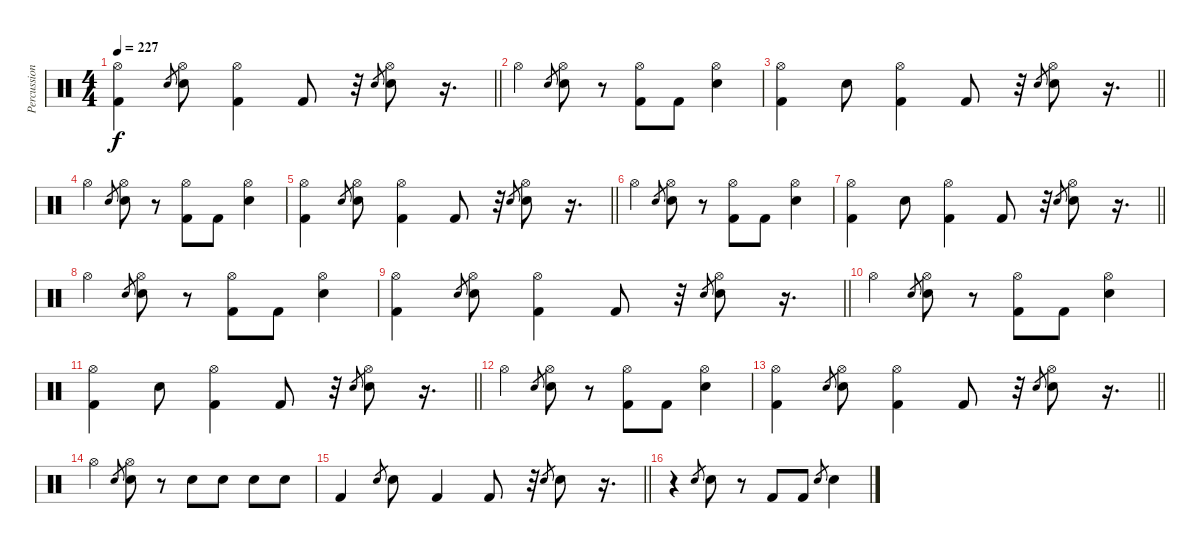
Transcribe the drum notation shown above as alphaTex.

\track ("Percussion" "Percussion") {instrument percussion}
\staff {score}
\articulation defaults
\ts (4 4)
\tempo 227
\clef neutral
\barLineRight lightlight
\ks c
("Hi-Hat (open)" "Kick (hit) 2").4{dy f} "Snare (hit) 2".8{gr} ("Hi-Hat (open)" "Snare (hit) 2").8 ("Hi-Hat (open)" "Kick (hit) 2").4 "Kick (hit) 2".8 r.32 "Snare (hit) 2".8{gr} ("Hi-Hat (open)" "Snare (hit) 2").8 r.16{d} |
"Hi-Hat (open)".4 "Snare (hit) 2".8{gr} ("Hi-Hat (open)" "Snare (hit) 2").8 r.8 ("Hi-Hat (open)" "Kick (hit) 2").8 "Kick (hit) 2".8 ("Hi-Hat (open)" "Snare (hit) 2").4 |
\barLineRight lightlight
("Hi-Hat (open)" "Kick (hit) 2").4 "Snare (hit) 2".8 ("Hi-Hat (open)" "Kick (hit) 2").4 "Kick (hit) 2".8 r.32 "Snare (hit) 2".8{gr} ("Hi-Hat (open)" "Snare (hit) 2").8 r.16{d} |
"Hi-Hat (open)".4 "Snare (hit) 2".8{gr} ("Hi-Hat (open)" "Snare (hit) 2").8 r.8 ("Hi-Hat (open)" "Kick (hit) 2").8 "Kick (hit) 2".8 ("Hi-Hat (open)" "Snare (hit) 2").4 |
\barLineRight lightlight
("Hi-Hat (open)" "Kick (hit) 2").4 "Snare (hit) 2".8{gr} ("Hi-Hat (open)" "Snare (hit) 2").8 ("Hi-Hat (open)" "Kick (hit) 2").4 "Kick (hit) 2".8 r.32 "Snare (hit) 2".8{gr} ("Hi-Hat (open)" "Snare (hit) 2").8 r.16{d} |
"Hi-Hat (open)".4 "Snare (hit) 2".8{gr} ("Hi-Hat (open)" "Snare (hit) 2").8 r.8 ("Hi-Hat (open)" "Kick (hit) 2").8 "Kick (hit) 2".8 ("Hi-Hat (open)" "Snare (hit) 2").4 |
\barLineRight lightlight
("Hi-Hat (open)" "Kick (hit) 2").4 "Snare (hit) 2".8 ("Hi-Hat (open)" "Kick (hit) 2").4 "Kick (hit) 2".8 r.32 "Snare (hit) 2".8{gr} ("Hi-Hat (open)" "Snare (hit) 2").8 r.16{d} |
"Hi-Hat (open)".4 "Snare (hit) 2".8{gr} ("Hi-Hat (open)" "Snare (hit) 2").8 r.8 ("Hi-Hat (open)" "Kick (hit) 2").8 "Kick (hit) 2".8 ("Hi-Hat (open)" "Snare (hit) 2").4 |
\barLineRight lightlight
("Hi-Hat (open)" "Kick (hit) 2").4 "Snare (hit) 2".8{gr} ("Hi-Hat (open)" "Snare (hit) 2").8 ("Hi-Hat (open)" "Kick (hit) 2").4 "Kick (hit) 2".8 r.32 "Snare (hit) 2".8{gr} ("Hi-Hat (open)" "Snare (hit) 2").8 r.16{d} |
"Hi-Hat (open)".4 "Snare (hit) 2".8{gr} ("Hi-Hat (open)" "Snare (hit) 2").8 r.8 ("Hi-Hat (open)" "Kick (hit) 2").8 "Kick (hit) 2".8 ("Hi-Hat (open)" "Snare (hit) 2").4 |
\barLineRight lightlight
("Hi-Hat (open)" "Kick (hit) 2").4 "Snare (hit) 2".8 ("Hi-Hat (open)" "Kick (hit) 2").4 "Kick (hit) 2".8 r.32 "Snare (hit) 2".8{gr} ("Hi-Hat (open)" "Snare (hit) 2").8 r.16{d} |
"Hi-Hat (open)".4 "Snare (hit) 2".8{gr} ("Hi-Hat (open)" "Snare (hit) 2").8 r.8 ("Hi-Hat (open)" "Kick (hit) 2").8 "Kick (hit) 2".8 ("Hi-Hat (open)" "Snare (hit) 2").4 |
\barLineRight lightlight
("Hi-Hat (open)" "Kick (hit) 2").4 "Snare (hit) 2".8{gr} ("Hi-Hat (open)" "Snare (hit) 2").8 ("Hi-Hat (open)" "Kick (hit) 2").4 "Kick (hit) 2".8 r.32 "Snare (hit) 2".8{gr} ("Hi-Hat (open)" "Snare (hit) 2").8 r.16{d} |
"Hi-Hat (open)".4 "Snare (hit) 2".8{gr} ("Hi-Hat (open)" "Snare (hit) 2").8 r.8 "Snare (hit) 2".8 "Snare (hit) 2".8 "Snare (hit) 2".8 "Snare (hit) 2".8 |
\barLineRight lightlight "Kick (hit) 2".4 "Snare (hit) 2".8{gr} "Snare (hit) 2".8 "Kick (hit) 2".4 "Kick (hit) 2".8
r.32 "Snare (hit) 2".8{gr} "Snare (hit) 2".8 r.16{d} |
r.4 "Snare (hit) 2".8{gr} "Snare (hit) 2".8 r.8 "Kick (hit) 2".8 "Kick (hit) 2".8 "Snare (hit) 2".8{gr} "Snare (hit) 2".4
